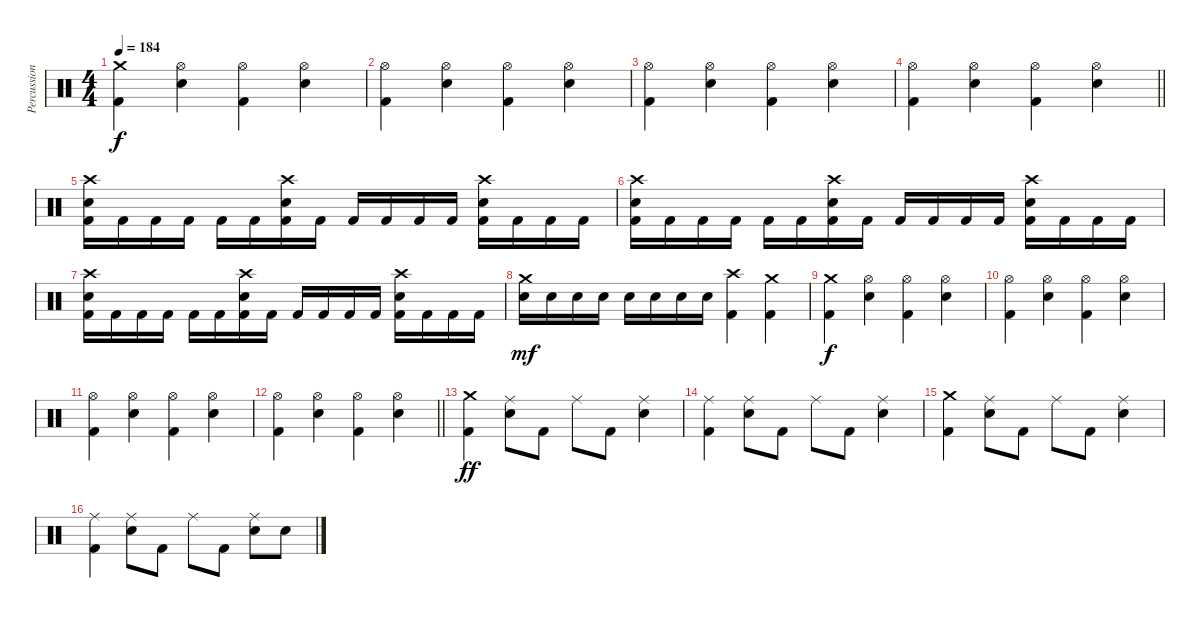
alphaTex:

\track ("Percussion" "Percussion") {instrument percussion}
\staff {score}
\articulation defaults
\ts (4 4)
\tempo 184
\clef neutral
\ks c
("Crash medium (hit)" "Kick (hit) 2").4{dy f} ("Hi-Hat (open)" "Electric Snare (hit)").4 ("Hi-Hat (open)" "Kick (hit) 2").4 ("Hi-Hat (open)" "Electric Snare (hit)").4 |
("Hi-Hat (open)" "Kick (hit) 2").4 ("Hi-Hat (open)" "Electric Snare (hit)").4 ("Hi-Hat (open)" "Kick (hit) 2").4 ("Hi-Hat (open)" "Electric Snare (hit)").4 |
("Hi-Hat (open)" "Kick (hit) 2").4 ("Hi-Hat (open)" "Electric Snare (hit)").4 ("Hi-Hat (open)" "Kick (hit) 2").4 ("Hi-Hat (open)" "Electric Snare (hit)").4 |
\barLineRight lightlight
("Hi-Hat (open)" "Kick (hit) 2").4 ("Hi-Hat (open)" "Electric Snare (hit)").4 ("Hi-Hat (open)" "Kick (hit) 2").4 ("Hi-Hat (open)" "Electric Snare (hit)").4 |
("Crash high (hit)" "Electric Snare (hit)" "Kick (hit) 2").16 "Kick (hit) 2".16 "Kick (hit) 2".16 "Kick (hit) 2".16 "Kick (hit) 2".16 "Kick (hit) 2".16 ("Crash high (hit)" "Electric Snare (hit)" "Kick (hit) 2").16 "Kick (hit) 2".16 "Kick (hit) 2".16 "Kick (hit) 2".16 "Kick (hit) 2".16 "Kick (hit) 2".16 ("Crash high (hit)" "Electric Snare (hit)" "Kick (hit) 2").16 "Kick (hit) 2".16 "Kick (hit) 2".16 "Kick (hit) 2".16 |
("Crash high (hit)" "Electric Snare (hit)" "Kick (hit) 2").16 "Kick (hit) 2".16 "Kick (hit) 2".16 "Kick (hit) 2".16 "Kick (hit) 2".16 "Kick (hit) 2".16 ("Crash high (hit)" "Electric Snare (hit)" "Kick (hit) 2").16 "Kick (hit) 2".16 "Kick (hit) 2".16 "Kick (hit) 2".16 "Kick (hit) 2".16 "Kick (hit) 2".16 ("Crash high (hit)" "Electric Snare (hit)" "Kick (hit) 2").16 "Kick (hit) 2".16 "Kick (hit) 2".16 "Kick (hit) 2".16 |
("Crash high (hit)" "Electric Snare (hit)" "Kick (hit) 2").16 "Kick (hit) 2".16 "Kick (hit) 2".16 "Kick (hit) 2".16 "Kick (hit) 2".16 "Kick (hit) 2".16 ("Crash high (hit)" "Electric Snare (hit)" "Kick (hit) 2").16 "Kick (hit) 2".16 "Kick (hit) 2".16 "Kick (hit) 2".16 "Kick (hit) 2".16 "Kick (hit) 2".16 ("Crash high (hit)" "Electric Snare (hit)" "Kick (hit) 2").16 "Kick (hit) 2".16 "Kick (hit) 2".16 "Kick (hit) 2".16 |
("Crash medium (hit)" "Electric Snare (hit)").16{dy mf} "Electric Snare (hit)".16 "Electric Snare (hit)".16 "Electric Snare (hit)".16 "Electric Snare (hit)".16 "Electric Snare (hit)".16 "Electric Snare (hit)".16 "Electric Snare (hit)".16 ("Crash high (hit)" "Kick (hit) 2").4 ("Crash medium (hit)" "Kick (hit) 2").4 |
("Crash medium (hit)" "Kick (hit) 2").4{dy f} ("Hi-Hat (open)" "Electric Snare (hit)").4 ("Hi-Hat (open)" "Kick (hit) 2").4 ("Hi-Hat (open)" "Electric Snare (hit)").4 |
("Hi-Hat (open)" "Kick (hit) 2").4 ("Hi-Hat (open)" "Electric Snare (hit)").4 ("Hi-Hat (open)" "Kick (hit) 2").4 ("Hi-Hat (open)" "Electric Snare (hit)").4 |
("Hi-Hat (open)" "Kick (hit) 2").4 ("Hi-Hat (open)" "Electric Snare (hit)").4 ("Hi-Hat (open)" "Kick (hit) 2").4 ("Hi-Hat (open)" "Electric Snare (hit)").4 |
\barLineRight lightlight
("Hi-Hat (open)" "Kick (hit) 2").4 ("Hi-Hat (open)" "Electric Snare (hit)").4 ("Hi-Hat (open)" "Kick (hit) 2").4 ("Hi-Hat (open)" "Electric Snare (hit)").4 |
("Crash medium (hit)" "Kick (hit) 2").4{dy ff} ("Ride (middle)" "Electric Snare (hit)").8 "Kick (hit) 2".8 "Ride (middle)".8 "Kick (hit) 2".8 ("Ride (middle)" "Electric Snare (hit)").4 |
("Ride (middle)" "Kick (hit) 2").4 ("Ride (middle)" "Electric Snare (hit)").8 "Kick (hit) 2".8 "Ride (middle)".8 "Kick (hit) 2".8 ("Ride (middle)" "Electric Snare (hit)").4 |
("Crash medium (hit)" "Kick (hit) 2").4 ("Ride (middle)" "Electric Snare (hit)").8 "Kick (hit) 2".8 "Ride (middle)".8 "Kick (hit) 2".8 ("Ride (middle)" "Electric Snare (hit)").4 |
("Ride (middle)" "Kick (hit) 2").4 ("Ride (middle)" "Electric Snare (hit)").8 "Kick (hit) 2".8 "Ride (middle)".8 "Kick (hit) 2".8 ("Ride (middle)" "Electric Snare (hit)").8 "Electric Snare (hit)".8
